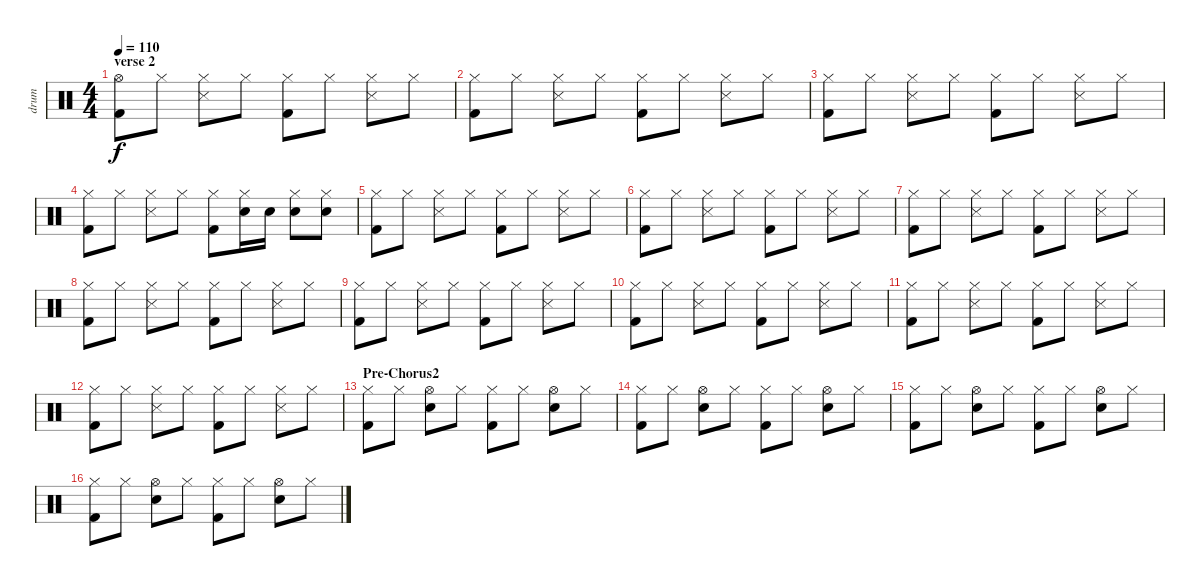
\track ("drum" "drum") {instrument percussion}
\staff {score}
\articulation defaults
\ts (4 4)
\section ("" "verse 2")
\tempo 110
\clef neutral
\ks c
("Hi-Hat (open)" "Kick (hit) 2").8{dy f} "Hi-Hat (closed)".8 ("Hi-Hat (closed)" "Snare (side stick) 3").8 "Hi-Hat (closed)".8 ("Hi-Hat (closed)" "Kick (hit) 2").8 "Hi-Hat (closed)".8 ("Hi-Hat (closed)" "Snare (side stick) 3").8 "Hi-Hat (closed)".8 |
("Hi-Hat (closed)" "Kick (hit) 2").8 "Hi-Hat (closed)".8 ("Hi-Hat (closed)" "Snare (side stick) 3").8 "Hi-Hat (closed)".8 ("Hi-Hat (closed)" "Kick (hit) 2").8 "Hi-Hat (closed)".8 ("Hi-Hat (closed)" "Snare (side stick) 3").8 "Hi-Hat (closed)".8 |
("Hi-Hat (closed)" "Kick (hit) 2").8 "Hi-Hat (closed)".8 ("Hi-Hat (closed)" "Snare (side stick) 3").8 "Hi-Hat (closed)".8 ("Hi-Hat (closed)" "Kick (hit) 2").8 "Hi-Hat (closed)".8 ("Hi-Hat (closed)" "Snare (side stick) 3").8 "Hi-Hat (closed)".8 |
("Hi-Hat (closed)" "Kick (hit) 2").8 "Hi-Hat (closed)".8 ("Hi-Hat (closed)" "Snare (side stick) 3").8 "Hi-Hat (closed)".8 ("Hi-Hat (closed)" "Kick (hit) 2").8 ("Hi-Hat (closed)" "Electric Snare (hit)").16 "Electric Snare (hit)".16 ("Hi-Hat (closed)" "Electric Snare (hit)").8 ("Hi-Hat (closed)" "Electric Snare (hit)").8 |
("Hi-Hat (closed)" "Kick (hit) 2").8 "Hi-Hat (closed)".8 ("Hi-Hat (closed)" "Snare (side stick) 3").8 "Hi-Hat (closed)".8 ("Hi-Hat (closed)" "Kick (hit) 2").8 "Hi-Hat (closed)".8 ("Hi-Hat (closed)" "Snare (side stick) 3").8 "Hi-Hat (closed)".8 |
("Hi-Hat (closed)" "Kick (hit) 2").8 "Hi-Hat (closed)".8 ("Hi-Hat (closed)" "Snare (side stick) 3").8 "Hi-Hat (closed)".8 ("Hi-Hat (closed)" "Kick (hit) 2").8 "Hi-Hat (closed)".8 ("Hi-Hat (closed)" "Snare (side stick) 3").8 "Hi-Hat (closed)".8 |
("Hi-Hat (closed)" "Kick (hit) 2").8 "Hi-Hat (closed)".8 ("Hi-Hat (closed)" "Snare (side stick) 3").8 "Hi-Hat (closed)".8 ("Hi-Hat (closed)" "Kick (hit) 2").8 "Hi-Hat (closed)".8 ("Hi-Hat (closed)" "Snare (side stick) 3").8 "Hi-Hat (closed)".8 |
("Hi-Hat (closed)" "Kick (hit) 2").8 "Hi-Hat (closed)".8 ("Hi-Hat (closed)" "Snare (side stick) 3").8 "Hi-Hat (closed)".8 ("Hi-Hat (closed)" "Kick (hit) 2").8 "Hi-Hat (closed)".8 ("Hi-Hat (closed)" "Snare (side stick) 3").8 "Hi-Hat (closed)".8 |
("Hi-Hat (closed)" "Kick (hit) 2").8 "Hi-Hat (closed)".8 ("Hi-Hat (closed)" "Snare (side stick) 3").8 "Hi-Hat (closed)".8 ("Hi-Hat (closed)" "Kick (hit) 2").8 "Hi-Hat (closed)".8 ("Hi-Hat (closed)" "Snare (side stick) 3").8 "Hi-Hat (closed)".8 |
("Hi-Hat (closed)" "Kick (hit) 2").8 "Hi-Hat (closed)".8 ("Hi-Hat (closed)" "Snare (side stick) 3").8 "Hi-Hat (closed)".8 ("Hi-Hat (closed)" "Kick (hit) 2").8 "Hi-Hat (closed)".8 ("Hi-Hat (closed)" "Snare (side stick) 3").8 "Hi-Hat (closed)".8 |
("Hi-Hat (closed)" "Kick (hit) 2").8 "Hi-Hat (closed)".8 ("Hi-Hat (closed)" "Snare (side stick) 3").8 "Hi-Hat (closed)".8 ("Hi-Hat (closed)" "Kick (hit) 2").8 "Hi-Hat (closed)".8 ("Hi-Hat (closed)" "Snare (side stick) 3").8 "Hi-Hat (closed)".8 |
("Hi-Hat (closed)" "Kick (hit) 2").8 "Hi-Hat (closed)".8 ("Hi-Hat (closed)" "Snare (side stick) 3").8 "Hi-Hat (closed)".8 ("Hi-Hat (closed)" "Kick (hit) 2").8 "Hi-Hat (closed)".8 ("Hi-Hat (closed)" "Snare (side stick) 3").8 "Hi-Hat (closed)".8 |
\section ("" "Pre-Chorus2")
("Hi-Hat (closed)" "Kick (hit) 2").8 "Hi-Hat (closed)".8 ("Hi-Hat (open)" "Electric Snare (hit)").8 "Hi-Hat (closed)".8 ("Hi-Hat (closed)" "Kick (hit) 2").8 "Hi-Hat (closed)".8 ("Hi-Hat (open)" "Electric Snare (hit)").8 "Hi-Hat (closed)".8 |
("Hi-Hat (closed)" "Kick (hit) 2").8 "Hi-Hat (closed)".8 ("Hi-Hat (open)" "Electric Snare (hit)").8 "Hi-Hat (closed)".8 ("Hi-Hat (closed)" "Kick (hit) 2").8 "Hi-Hat (closed)".8 ("Hi-Hat (open)" "Electric Snare (hit)").8 "Hi-Hat (closed)".8 |
("Hi-Hat (closed)" "Kick (hit) 2").8 "Hi-Hat (closed)".8 ("Hi-Hat (open)" "Electric Snare (hit)").8 "Hi-Hat (closed)".8 ("Hi-Hat (closed)" "Kick (hit) 2").8 "Hi-Hat (closed)".8 ("Hi-Hat (open)" "Electric Snare (hit)").8 "Hi-Hat (closed)".8 |
("Hi-Hat (closed)" "Kick (hit) 2").8 "Hi-Hat (closed)".8 ("Hi-Hat (open)" "Electric Snare (hit)").8 "Hi-Hat (closed)".8 ("Hi-Hat (closed)" "Kick (hit) 2").8 "Hi-Hat (closed)".8 ("Hi-Hat (open)" "Electric Snare (hit)").8 "Hi-Hat (closed)".8
